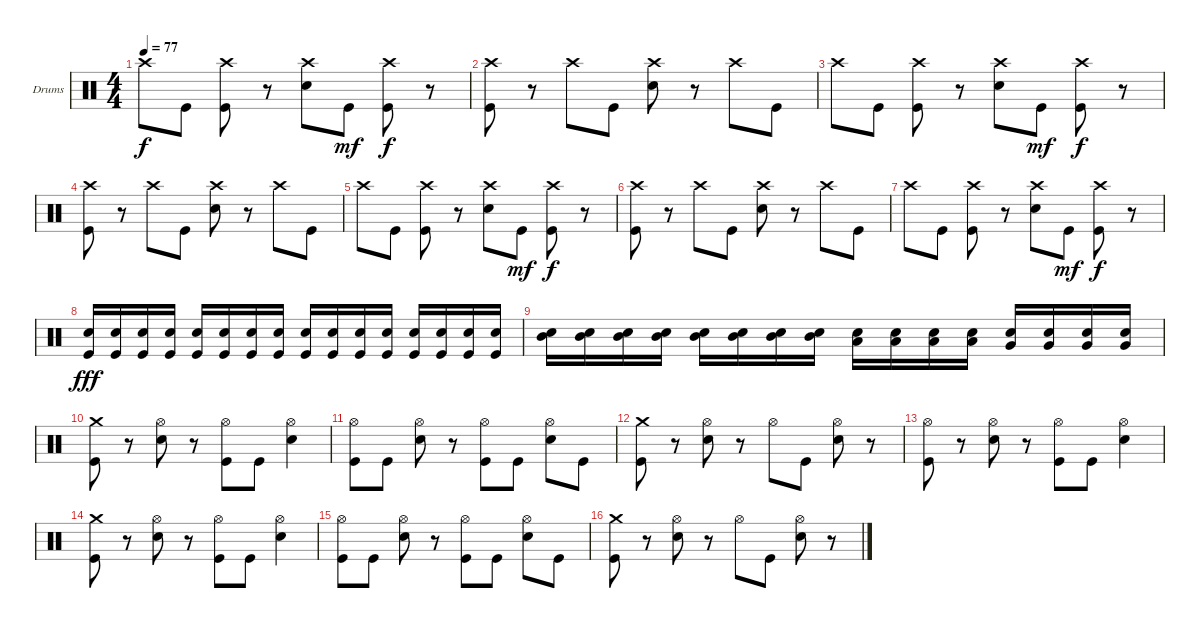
\bracketExtendMode groupsimilarinstruments
\firstSystemTrackNameOrientation horizontal
\otherSystemsTrackNameOrientation horizontal
\track ("Drumkit" "Drums") {instrument percussion}
\staff {score}
\articulation defaults
\ts (4 4)
\tempo 77
\clef neutral
\ks c "Crash high (hit)".8{dy f} "Kick (hit)".8
("Crash high (hit)" "Kick (hit)").8 r.8 ("Crash high (hit)" "Snare (hit) 2").8 "Kick (hit)".8{dy mf} ("Crash high (hit)" "Kick (hit)").8{dy f} r.8 |
("Crash high (hit)" "Kick (hit)").8 r.8 "Crash high (hit)".8 "Kick (hit)".8 ("Crash high (hit)" "Snare (hit) 2").8 r.8 "Crash high (hit)".8 "Kick (hit)".8 |
"Crash high (hit)".8 "Kick (hit)".8 ("Crash high (hit)" "Kick (hit)").8 r.8 ("Crash high (hit)" "Snare (hit) 2").8 "Kick (hit)".8{dy mf} ("Crash high (hit)" "Kick (hit)").8{dy f} r.8 |
("Crash high (hit)" "Kick (hit)").8 r.8 "Crash high (hit)".8 "Kick (hit)".8 ("Crash high (hit)" "Snare (hit) 2").8 r.8 "Crash high (hit)".8 "Kick (hit)".8 |
"Crash high (hit)".8 "Kick (hit)".8 ("Crash high (hit)" "Kick (hit)").8 r.8 ("Crash high (hit)" "Snare (hit) 2").8 "Kick (hit)".8{dy mf} ("Crash high (hit)" "Kick (hit)").8{dy f} r.8 |
("Crash high (hit)" "Kick (hit)").8 r.8 "Crash high (hit)".8 "Kick (hit)".8 ("Crash high (hit)" "Snare (hit) 2").8 r.8 "Crash high (hit)".8 "Kick (hit)".8 |
"Crash high (hit)".8 "Kick (hit)".8 ("Crash high (hit)" "Kick (hit)").8 r.8 ("Crash high (hit)" "Snare (hit) 2").8 "Kick (hit)".8{dy mf} ("Crash high (hit)" "Kick (hit)").8{dy f} r.8 |
("Kick (hit)" "Snare (hit) 2").16{dy fff} ("Kick (hit)" "Snare (hit) 2").16 ("Kick (hit)" "Snare (hit) 2").16 ("Kick (hit)" "Snare (hit) 2").16 ("Kick (hit)" "Snare (hit) 2").16 ("Kick (hit)" "Snare (hit) 2").16 ("Kick (hit)" "Snare (hit) 2").16 ("Kick (hit)" "Snare (hit) 2").16 ("Kick (hit)" "Snare (hit) 2").16 ("Kick (hit)" "Snare (hit) 2").16 ("Kick (hit)" "Snare (hit) 2").16 ("Kick (hit)" "Snare (hit) 2").16 ("Kick (hit)" "Snare (hit) 2").16 ("Kick (hit)" "Snare (hit) 2").16 ("Kick (hit)" "Snare (hit) 2").16 ("Kick (hit)" "Snare (hit) 2").16 |
("Snare (hit) 2" "Mid Tom (hit)").16 ("Snare (hit) 2" "Mid Tom (hit)").16 ("Snare (hit) 2" "Mid Tom (hit)").16 ("Snare (hit) 2" "Mid Tom (hit)").16 ("Snare (hit) 2" "Mid Tom (hit)").16 ("Snare (hit) 2" "Mid Tom (hit)").16 ("Snare (hit) 2" "Mid Tom (hit)").16 ("Snare (hit) 2" "Mid Tom (hit)").16 ("Low Tom (hit)" "Snare (hit) 2").16 ("Low Tom (hit)" "Snare (hit) 2").16 ("Low Tom (hit)" "Snare (hit) 2").16 ("Low Tom (hit)" "Snare (hit) 2").16 ("Very Low Tom (hit)" "Snare (hit) 2").16 ("Very Low Tom (hit)" "Snare (hit) 2").16 ("Very Low Tom (hit)" "Snare (hit) 2").16 ("Very Low Tom (hit)" "Snare (hit) 2").16 |
("Crash medium (hit)" "Kick (hit)").8 r.8 ("Hi-Hat (open)" "Snare (hit) 2").8 r.8 ("Hi-Hat (open)" "Kick (hit)").8 "Kick (hit)".8 ("Hi-Hat (open)" "Snare (hit) 2").4 |
("Hi-Hat (open)" "Kick (hit)").8 "Kick (hit)".8 ("Hi-Hat (open)" "Snare (hit) 2").8 r.8 ("Hi-Hat (open)" "Kick (hit)").8 "Kick (hit)".8 ("Hi-Hat (open)" "Snare (hit) 2").8 "Kick (hit)".8 |
("Crash medium (hit)" "Kick (hit)").8 r.8 ("Hi-Hat (open)" "Snare (hit) 2").8 r.8 "Hi-Hat (open)".8 "Kick (hit)".8 ("Hi-Hat (open)" "Snare (hit) 2").8 r.8 |
("Hi-Hat (open)" "Kick (hit)").8 r.8 ("Hi-Hat (open)" "Snare (hit) 2").8 r.8 ("Hi-Hat (open)" "Kick (hit)").8 "Kick (hit)".8 ("Hi-Hat (open)" "Snare (hit) 2").4 |
("Crash medium (hit)" "Kick (hit)").8 r.8 ("Hi-Hat (open)" "Snare (hit) 2").8 r.8 ("Hi-Hat (open)" "Kick (hit)").8 "Kick (hit)".8 ("Hi-Hat (open)" "Snare (hit) 2").4 |
("Hi-Hat (open)" "Kick (hit)").8 "Kick (hit)".8 ("Hi-Hat (open)" "Snare (hit) 2").8 r.8 ("Hi-Hat (open)" "Kick (hit)").8 "Kick (hit)".8 ("Hi-Hat (open)" "Snare (hit) 2").8 "Kick (hit)".8 |
("Crash medium (hit)" "Kick (hit)").8 r.8 ("Hi-Hat (open)" "Snare (hit) 2").8 r.8 "Hi-Hat (open)".8 "Kick (hit)".8 ("Hi-Hat (open)" "Snare (hit) 2").8 r.8
